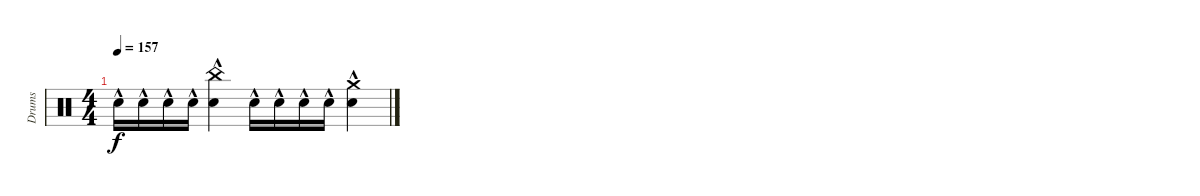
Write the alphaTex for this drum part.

\track ("Drums" "Drums") {solo instrument percussion}
\staff {score}
\articulation defaults
\ts (4 4)
\tempo 157
\clef neutral
\ks c "Snare (hit) 2"{hac}.16{dy f} "Snare (hit) 2"{hac}.16 "Snare (hit) 2"{hac}.16 "Snare (hit) 2"{hac}.16
("Snare (hit) 2"{hac} "China (hit)"{hac}).4 "Snare (hit) 2"{hac}.16 "Snare (hit) 2"{hac}.16 "Snare (hit) 2"{hac}.16 "Snare (hit) 2"{hac}.16 ("Snare (hit) 2"{hac} "Crash medium (hit)").4
